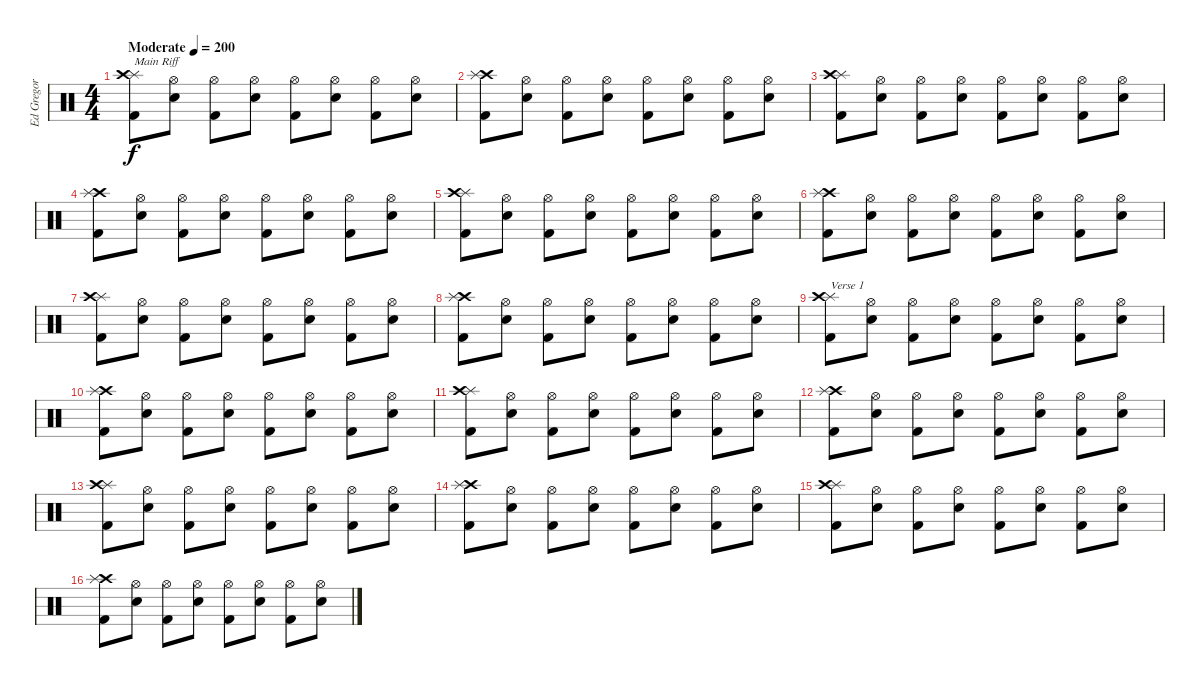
\track ("Ed Gregor" "Ed Gregor") {instrument percussion}
\staff {score}
\articulation defaults
\ts (4 4)
\tempo (200 "Moderate")
\clef neutral
\ks c
("Splash (hit)" "Crash high (hit)" "Kick (hit) 2").8{txt "Main Riff" dy f} ("Hi-Hat (open)" "Snare (hit) 2").8 ("Hi-Hat (open)" "Kick (hit) 2").8 ("Hi-Hat (open)" "Snare (hit) 2").8 ("Hi-Hat (open)" "Kick (hit) 2").8 ("Hi-Hat (open)" "Snare (hit) 2").8 ("Hi-Hat (open)" "Kick (hit) 2").8 ("Hi-Hat (open)" "Snare (hit) 2").8 |
("Crash high (hit)" "Splash (hit)" "Kick (hit) 2").8 ("Hi-Hat (open)" "Snare (hit) 2").8 ("Hi-Hat (open)" "Kick (hit) 2").8 ("Hi-Hat (open)" "Snare (hit) 2").8 ("Hi-Hat (open)" "Kick (hit) 2").8 ("Hi-Hat (open)" "Snare (hit) 2").8 ("Hi-Hat (open)" "Kick (hit) 2").8 ("Hi-Hat (open)" "Snare (hit) 2").8 |
("Splash (hit)" "Crash high (hit)" "Kick (hit) 2").8 ("Hi-Hat (open)" "Snare (hit) 2").8 ("Hi-Hat (open)" "Kick (hit) 2").8 ("Hi-Hat (open)" "Snare (hit) 2").8 ("Hi-Hat (open)" "Kick (hit) 2").8 ("Hi-Hat (open)" "Snare (hit) 2").8 ("Hi-Hat (open)" "Kick (hit) 2").8 ("Hi-Hat (open)" "Snare (hit) 2").8 |
("Crash high (hit)" "Splash (hit)" "Kick (hit) 2").8 ("Hi-Hat (open)" "Snare (hit) 2").8 ("Hi-Hat (open)" "Kick (hit) 2").8 ("Hi-Hat (open)" "Snare (hit) 2").8 ("Hi-Hat (open)" "Kick (hit) 2").8 ("Hi-Hat (open)" "Snare (hit) 2").8 ("Hi-Hat (open)" "Kick (hit) 2").8 ("Hi-Hat (open)" "Snare (hit) 2").8 |
("Splash (hit)" "Crash high (hit)" "Kick (hit) 2").8 ("Hi-Hat (open)" "Snare (hit) 2").8 ("Hi-Hat (open)" "Kick (hit) 2").8 ("Hi-Hat (open)" "Snare (hit) 2").8 ("Hi-Hat (open)" "Kick (hit) 2").8 ("Hi-Hat (open)" "Snare (hit) 2").8 ("Hi-Hat (open)" "Kick (hit) 2").8 ("Hi-Hat (open)" "Snare (hit) 2").8 |
("Crash high (hit)" "Splash (hit)" "Kick (hit) 2").8 ("Hi-Hat (open)" "Snare (hit) 2").8 ("Hi-Hat (open)" "Kick (hit) 2").8 ("Hi-Hat (open)" "Snare (hit) 2").8 ("Hi-Hat (open)" "Kick (hit) 2").8 ("Hi-Hat (open)" "Snare (hit) 2").8 ("Hi-Hat (open)" "Kick (hit) 2").8 ("Hi-Hat (open)" "Snare (hit) 2").8 |
("Splash (hit)" "Crash high (hit)" "Kick (hit) 2").8 ("Hi-Hat (open)" "Snare (hit) 2").8 ("Hi-Hat (open)" "Kick (hit) 2").8 ("Hi-Hat (open)" "Snare (hit) 2").8 ("Hi-Hat (open)" "Kick (hit) 2").8 ("Hi-Hat (open)" "Snare (hit) 2").8 ("Hi-Hat (open)" "Kick (hit) 2").8 ("Hi-Hat (open)" "Snare (hit) 2").8 |
("Crash high (hit)" "Splash (hit)" "Kick (hit) 2").8 ("Hi-Hat (open)" "Snare (hit) 2").8 ("Hi-Hat (open)" "Kick (hit) 2").8 ("Hi-Hat (open)" "Snare (hit) 2").8 ("Hi-Hat (open)" "Kick (hit) 2").8 ("Hi-Hat (open)" "Snare (hit) 2").8 ("Hi-Hat (open)" "Kick (hit) 2").8 ("Hi-Hat (open)" "Snare (hit) 2").8 |
("Splash (hit)" "Crash high (hit)" "Kick (hit) 2").8{txt "Verse 1"} ("Hi-Hat (open)" "Snare (hit) 2").8 ("Hi-Hat (open)" "Kick (hit) 2").8 ("Hi-Hat (open)" "Snare (hit) 2").8 ("Hi-Hat (open)" "Kick (hit) 2").8 ("Hi-Hat (open)" "Snare (hit) 2").8 ("Hi-Hat (open)" "Kick (hit) 2").8 ("Hi-Hat (open)" "Snare (hit) 2").8 |
("Crash high (hit)" "Splash (hit)" "Kick (hit) 2").8 ("Hi-Hat (open)" "Snare (hit) 2").8 ("Hi-Hat (open)" "Kick (hit) 2").8 ("Hi-Hat (open)" "Snare (hit) 2").8 ("Hi-Hat (open)" "Kick (hit) 2").8 ("Hi-Hat (open)" "Snare (hit) 2").8 ("Hi-Hat (open)" "Kick (hit) 2").8 ("Hi-Hat (open)" "Snare (hit) 2").8 |
("Splash (hit)" "Crash high (hit)" "Kick (hit) 2").8 ("Hi-Hat (open)" "Snare (hit) 2").8 ("Hi-Hat (open)" "Kick (hit) 2").8 ("Hi-Hat (open)" "Snare (hit) 2").8 ("Hi-Hat (open)" "Kick (hit) 2").8 ("Hi-Hat (open)" "Snare (hit) 2").8 ("Hi-Hat (open)" "Kick (hit) 2").8 ("Hi-Hat (open)" "Snare (hit) 2").8 |
("Crash high (hit)" "Splash (hit)" "Kick (hit) 2").8 ("Hi-Hat (open)" "Snare (hit) 2").8 ("Hi-Hat (open)" "Kick (hit) 2").8 ("Hi-Hat (open)" "Snare (hit) 2").8 ("Hi-Hat (open)" "Kick (hit) 2").8 ("Hi-Hat (open)" "Snare (hit) 2").8 ("Hi-Hat (open)" "Kick (hit) 2").8 ("Hi-Hat (open)" "Snare (hit) 2").8 |
("Splash (hit)" "Crash high (hit)" "Kick (hit) 2").8 ("Hi-Hat (open)" "Snare (hit) 2").8 ("Hi-Hat (open)" "Kick (hit) 2").8 ("Hi-Hat (open)" "Snare (hit) 2").8 ("Hi-Hat (open)" "Kick (hit) 2").8 ("Hi-Hat (open)" "Snare (hit) 2").8 ("Hi-Hat (open)" "Kick (hit) 2").8 ("Hi-Hat (open)" "Snare (hit) 2").8 |
("Crash high (hit)" "Splash (hit)" "Kick (hit) 2").8 ("Hi-Hat (open)" "Snare (hit) 2").8 ("Hi-Hat (open)" "Kick (hit) 2").8 ("Hi-Hat (open)" "Snare (hit) 2").8 ("Hi-Hat (open)" "Kick (hit) 2").8 ("Hi-Hat (open)" "Snare (hit) 2").8 ("Hi-Hat (open)" "Kick (hit) 2").8 ("Hi-Hat (open)" "Snare (hit) 2").8 |
("Splash (hit)" "Crash high (hit)" "Kick (hit) 2").8 ("Hi-Hat (open)" "Snare (hit) 2").8 ("Hi-Hat (open)" "Kick (hit) 2").8 ("Hi-Hat (open)" "Snare (hit) 2").8 ("Hi-Hat (open)" "Kick (hit) 2").8 ("Hi-Hat (open)" "Snare (hit) 2").8 ("Hi-Hat (open)" "Kick (hit) 2").8 ("Hi-Hat (open)" "Snare (hit) 2").8 |
("Crash high (hit)" "Splash (hit)" "Kick (hit) 2").8 ("Hi-Hat (open)" "Snare (hit) 2").8 ("Hi-Hat (open)" "Kick (hit) 2").8 ("Hi-Hat (open)" "Snare (hit) 2").8 ("Hi-Hat (open)" "Kick (hit) 2").8 ("Hi-Hat (open)" "Snare (hit) 2").8 ("Hi-Hat (open)" "Kick (hit) 2").8 ("Hi-Hat (open)" "Snare (hit) 2").8
